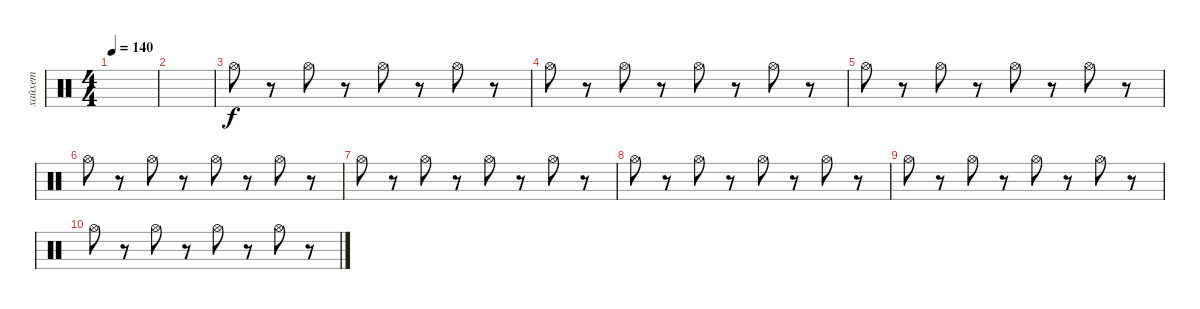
\track ("хайхет" "хайхет") {mute instrument percussion}
\staff {score}
\articulation defaults
\ts (4 4)
\tempo 140
\clef neutral
\ks c
|
|
"Hi-Hat (open)".8 r.8 "Hi-Hat (open)".8 r.8 "Hi-Hat (open)".8 r.8 "Hi-Hat (open)".8 r.8 |
"Hi-Hat (open)".8 r.8 "Hi-Hat (open)".8 r.8 "Hi-Hat (open)".8 r.8 "Hi-Hat (open)".8 r.8 |
"Hi-Hat (open)".8 r.8 "Hi-Hat (open)".8 r.8 "Hi-Hat (open)".8 r.8 "Hi-Hat (open)".8 r.8 |
"Hi-Hat (open)".8 r.8 "Hi-Hat (open)".8 r.8 "Hi-Hat (open)".8 r.8 "Hi-Hat (open)".8 r.8 |
"Hi-Hat (open)".8 r.8 "Hi-Hat (open)".8 r.8 "Hi-Hat (open)".8 r.8 "Hi-Hat (open)".8 r.8 |
"Hi-Hat (open)".8 r.8 "Hi-Hat (open)".8 r.8 "Hi-Hat (open)".8 r.8 "Hi-Hat (open)".8 r.8 |
"Hi-Hat (open)".8 r.8 "Hi-Hat (open)".8 r.8 "Hi-Hat (open)".8 r.8 "Hi-Hat (open)".8 r.8 |
"Hi-Hat (open)".8 r.8 "Hi-Hat (open)".8 r.8 "Hi-Hat (open)".8 r.8 "Hi-Hat (open)".8 r.8
